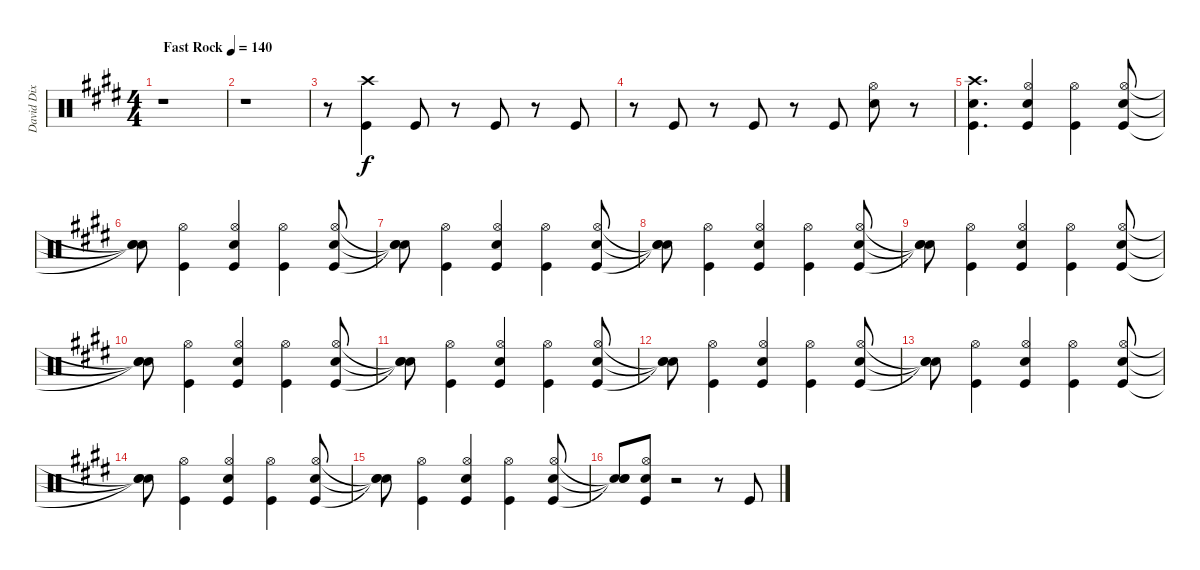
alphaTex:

\track ("David Dix Drums" "David Dix ") {instrument percussion}
\staff {score}
\articulation defaults
\ts (4 4)
\tempo (140 "Fast Rock")
\clef neutral
\ks e
r.1{dy f} |
r.1 |
r.8 ("Crash high (hit)" "Kick (hit)").4 "Kick (hit)".8 r.8 "Kick (hit)".8 r.8 "Kick (hit)".8 |
r.8 "Kick (hit)".8 r.8 "Kick (hit)".8 r.8 "Kick (hit)".8 ("Hi-Hat (open)" "Snare (hit) 2").8 r.8 |
("Crash high (hit)" "Snare (hit) 2" "Kick (hit)").4{d} ("Hi-Hat (open)" "Snare (hit) 2" "Kick (hit)").4 ("Hi-Hat (open)" "Kick (hit)").4 ("Hi-Hat (open)" "Snare (hit) 2" "Kick (hit)").8 |
("Snare (hit)"{t} "Snare (hit)"{t} "Snare (hit)"{t}).8 ("Hi-Hat (open)" "Kick (hit)").4 ("Hi-Hat (open)" "Snare (hit) 2" "Kick (hit)").4 ("Hi-Hat (open)" "Kick (hit)").4 ("Hi-Hat (open)" "Snare (hit) 2" "Kick (hit)").8 |
("Snare (hit)"{t} "Snare (hit)"{t} "Snare (hit)"{t}).8 ("Hi-Hat (open)" "Kick (hit)").4 ("Hi-Hat (open)" "Snare (hit) 2" "Kick (hit)").4 ("Hi-Hat (open)" "Kick (hit)").4 ("Hi-Hat (open)" "Snare (hit) 2" "Kick (hit)").8 |
("Snare (hit)"{t} "Snare (hit)"{t} "Snare (hit)"{t}).8 ("Hi-Hat (open)" "Kick (hit)").4 ("Hi-Hat (open)" "Snare (hit) 2" "Kick (hit)").4 ("Hi-Hat (open)" "Kick (hit)").4 ("Hi-Hat (open)" "Snare (hit) 2" "Kick (hit)").8 |
("Snare (hit)"{t} "Snare (hit)"{t} "Snare (hit)"{t}).8 ("Hi-Hat (open)" "Kick (hit)").4 ("Hi-Hat (open)" "Snare (hit) 2" "Kick (hit)").4 ("Hi-Hat (open)" "Kick (hit)").4 ("Hi-Hat (open)" "Snare (hit) 2" "Kick (hit)").8 |
("Snare (hit)"{t} "Snare (hit)"{t} "Snare (hit)"{t}).8 ("Hi-Hat (open)" "Kick (hit)").4 ("Hi-Hat (open)" "Snare (hit) 2" "Kick (hit)").4 ("Hi-Hat (open)" "Kick (hit)").4 ("Hi-Hat (open)" "Snare (hit) 2" "Kick (hit)").8 |
("Snare (hit)"{t} "Snare (hit)"{t} "Snare (hit)"{t}).8 ("Hi-Hat (open)" "Kick (hit)").4 ("Hi-Hat (open)" "Snare (hit) 2" "Kick (hit)").4 ("Hi-Hat (open)" "Kick (hit)").4 ("Hi-Hat (open)" "Snare (hit) 2" "Kick (hit)").8 |
("Snare (hit)"{t} "Snare (hit)"{t} "Snare (hit)"{t}).8 ("Hi-Hat (open)" "Kick (hit)").4 ("Hi-Hat (open)" "Snare (hit) 2" "Kick (hit)").4 ("Hi-Hat (open)" "Kick (hit)").4 ("Hi-Hat (open)" "Snare (hit) 2" "Kick (hit)").8 |
("Snare (hit)"{t} "Snare (hit)"{t} "Snare (hit)"{t}).8 ("Hi-Hat (open)" "Kick (hit)").4 ("Hi-Hat (open)" "Snare (hit) 2" "Kick (hit)").4 ("Hi-Hat (open)" "Kick (hit)").4 ("Hi-Hat (open)" "Snare (hit) 2" "Kick (hit)").8 |
("Snare (hit)"{t} "Snare (hit)"{t} "Snare (hit)"{t}).8 ("Hi-Hat (open)" "Kick (hit)").4 ("Hi-Hat (open)" "Snare (hit) 2" "Kick (hit)").4 ("Hi-Hat (open)" "Kick (hit)").4 ("Hi-Hat (open)" "Snare (hit) 2" "Kick (hit)").8 |
("Snare (hit)"{t} "Snare (hit)"{t} "Snare (hit)"{t}).8 ("Hi-Hat (open)" "Kick (hit)").4 ("Hi-Hat (open)" "Snare (hit) 2" "Kick (hit)").4 ("Hi-Hat (open)" "Kick (hit)").4 ("Hi-Hat (open)" "Snare (hit) 2" "Kick (hit)").8 |
("Snare (hit)"{t} "Snare (hit)"{t} "Snare (hit)"{t}).8 ("Hi-Hat (open)" "Snare (hit) 2" "Kick (hit)").8 r.2 r.8 "Kick (hit)".8
